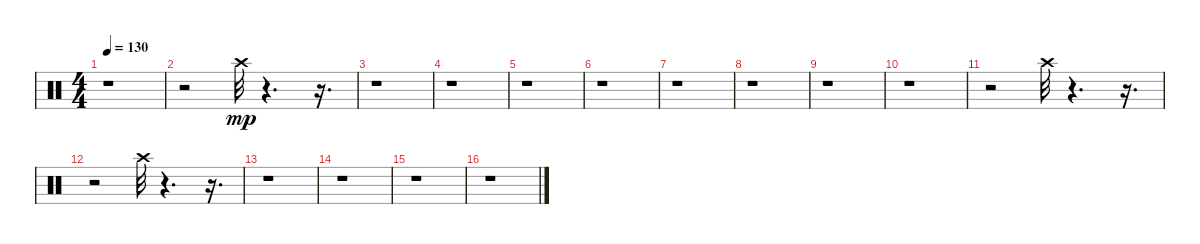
\track "" {instrument percussion}
\staff {score}
\articulation defaults
\ts (4 4)
\tempo 130
\clef neutral
\ks c
r.1{dy mp} |
r.2 "Crash high (hit)".32 r.4{d} r.16{d} |
r.1 |
r.1 |
r.1 |
r.1 |
r.1 |
r.1 |
r.1 |
r.1 |
r.2 "Crash high (hit)".32 r.4{d} r.16{d} |
r.2 "Crash high (hit)".32 r.4{d} r.16{d} |
r.1 |
r.1 |
r.1 |
r.1
